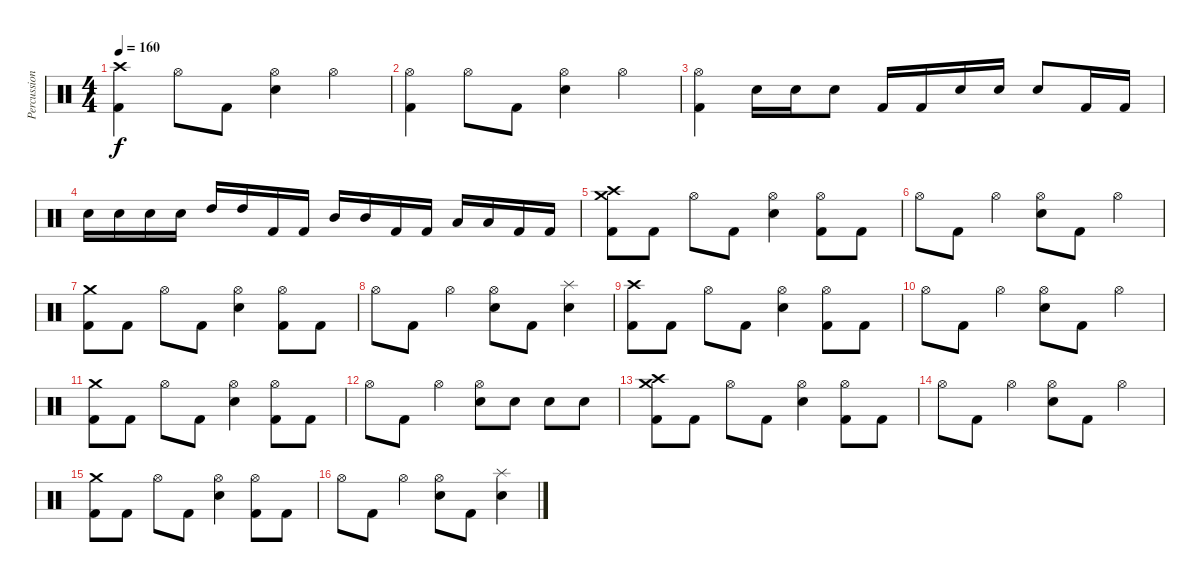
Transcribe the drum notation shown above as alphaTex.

\track ("Percussioni" "Percussion") {instrument percussion}
\staff {score}
\articulation defaults
\ts (4 4)
\tempo 160
\clef neutral
\ks c
("Crash high (hit)" "Kick (hit) 2").4{dy f} "Hi-Hat (open)".8 "Kick (hit) 2".8 ("Hi-Hat (open)" "Electric Snare (hit)").4 "Hi-Hat (open)".4 |
("Hi-Hat (open)" "Kick (hit) 2").4 "Hi-Hat (open)".8 "Kick (hit) 2".8 ("Hi-Hat (open)" "Electric Snare (hit)").4 "Hi-Hat (open)".4 |
("Hi-Hat (open)" "Kick (hit) 2").4 "Electric Snare (hit)".16 "Electric Snare (hit)".16 "Electric Snare (hit)".8 "Kick (hit) 2".16 "Kick (hit) 2".16 "Electric Snare (hit)".16 "Electric Snare (hit)".16 "Electric Snare (hit)".8 "Kick (hit) 2".16 "Kick (hit) 2".16 |
"Electric Snare (hit)".16 "Electric Snare (hit)".16 "Electric Snare (hit)".16 "Electric Snare (hit)".16 "High Tom (hit)".16 "High Tom (hit)".16 "Kick (hit) 2".16 "Kick (hit) 2".16 "Mid Tom (hit)".16 "Mid Tom (hit)".16 "Kick (hit) 2".16 "Kick (hit) 2".16 "Low Tom (hit)".16 "Low Tom (hit)".16 "Kick (hit) 2".16 "Kick (hit) 2".16 |
("Crash high (hit)" "Crash medium (hit)" "Kick (hit) 2").8 "Kick (hit) 2".8 "Hi-Hat (open)".8 "Kick (hit) 2".8 ("Hi-Hat (open)" "Electric Snare (hit)").4 ("Hi-Hat (open)" "Kick (hit) 2").8 "Kick (hit) 2".8 |
"Hi-Hat (open)".8 "Kick (hit) 2".8 "Hi-Hat (open)".4 ("Hi-Hat (open)" "Electric Snare (hit)").8 "Kick (hit) 2".8 "Hi-Hat (open)".4 |
("Crash medium (hit)" "Kick (hit) 2").8 "Kick (hit) 2".8 "Hi-Hat (open)".8 "Kick (hit) 2".8 ("Hi-Hat (open)" "Electric Snare (hit)").4 ("Hi-Hat (open)" "Kick (hit) 2").8 "Kick (hit) 2".8 |
"Hi-Hat (open)".8 "Kick (hit) 2".8 "Hi-Hat (open)".4 ("Hi-Hat (open)" "Electric Snare (hit)").8 "Kick (hit) 2".8 ("Splash (hit)" "Electric Snare (hit)").4 |
("Crash high (hit)" "Kick (hit) 2").8 "Kick (hit) 2".8 "Hi-Hat (open)".8 "Kick (hit) 2".8 ("Hi-Hat (open)" "Electric Snare (hit)").4 ("Hi-Hat (open)" "Kick (hit) 2").8 "Kick (hit) 2".8 |
"Hi-Hat (open)".8 "Kick (hit) 2".8 "Hi-Hat (open)".4 ("Hi-Hat (open)" "Electric Snare (hit)").8 "Kick (hit) 2".8 "Hi-Hat (open)".4 |
("Crash medium (hit)" "Kick (hit) 2").8 "Kick (hit) 2".8 "Hi-Hat (open)".8 "Kick (hit) 2".8 ("Hi-Hat (open)" "Electric Snare (hit)").4 ("Hi-Hat (open)" "Kick (hit) 2").8 "Kick (hit) 2".8 |
"Hi-Hat (open)".8 "Kick (hit) 2".8 "Hi-Hat (open)".4 ("Hi-Hat (open)" "Electric Snare (hit)").8 "Electric Snare (hit)".8 "Electric Snare (hit)".8 "Electric Snare (hit)".8 |
("Crash high (hit)" "Crash medium (hit)" "Kick (hit) 2").8 "Kick (hit) 2".8 "Hi-Hat (open)".8 "Kick (hit) 2".8 ("Hi-Hat (open)" "Electric Snare (hit)").4 ("Hi-Hat (open)" "Kick (hit) 2").8 "Kick (hit) 2".8 |
"Hi-Hat (open)".8 "Kick (hit) 2".8 "Hi-Hat (open)".4 ("Hi-Hat (open)" "Electric Snare (hit)").8 "Kick (hit) 2".8 "Hi-Hat (open)".4 |
("Crash medium (hit)" "Kick (hit) 2").8 "Kick (hit) 2".8 "Hi-Hat (open)".8 "Kick (hit) 2".8 ("Hi-Hat (open)" "Electric Snare (hit)").4 ("Hi-Hat (open)" "Kick (hit) 2").8 "Kick (hit) 2".8 |
"Hi-Hat (open)".8 "Kick (hit) 2".8 "Hi-Hat (open)".4 ("Hi-Hat (open)" "Electric Snare (hit)").8 "Kick (hit) 2".8 ("Splash (hit)" "Electric Snare (hit)").4
